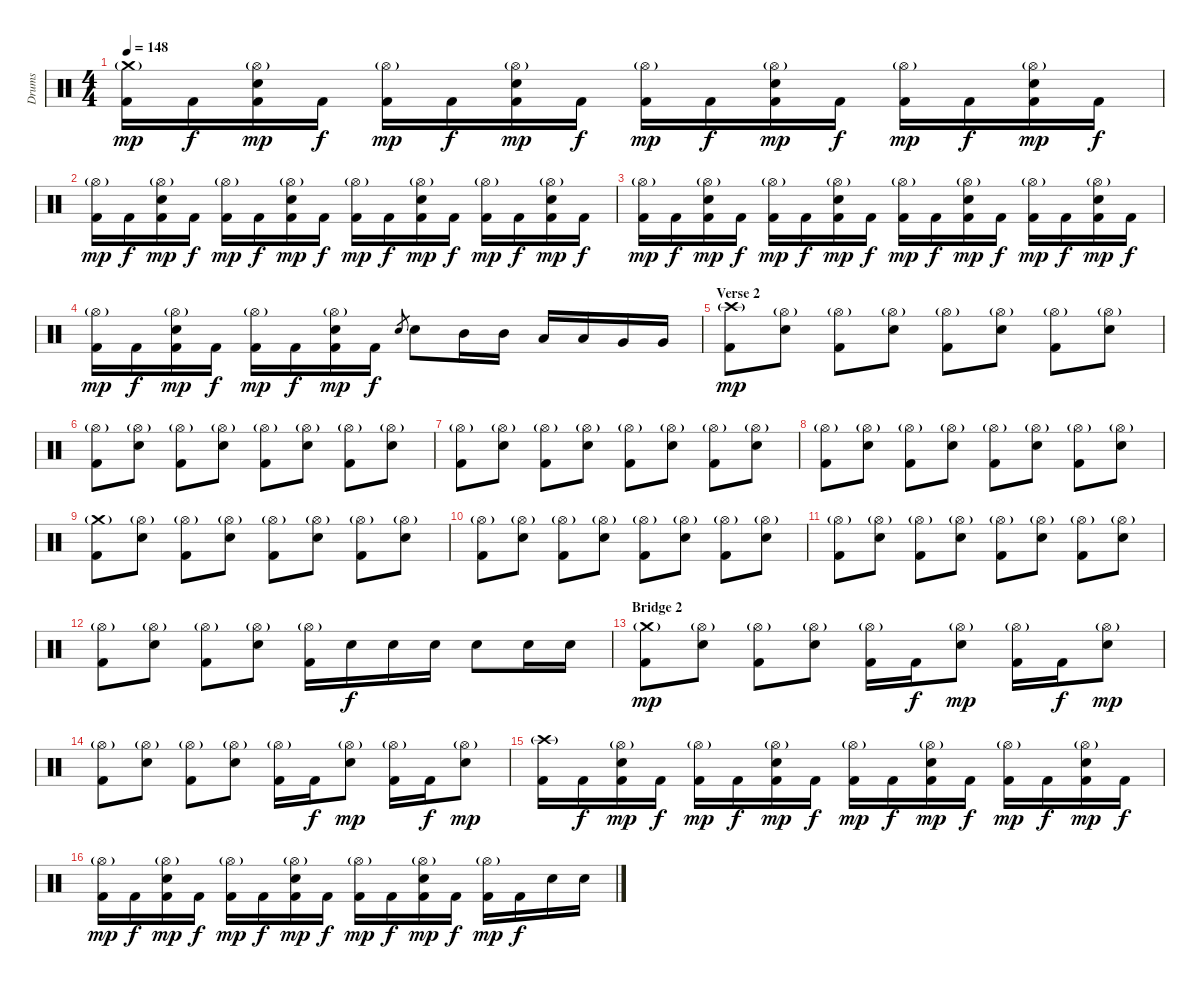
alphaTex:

\track ("Drums" "Drums") {instrument percussion}
\staff {score}
\articulation defaults
\ts (4 4)
\tempo 148
\clef neutral
\ks c
("Crash medium (hit)"{g} "Kick (hit) 2").16{dy mp} "Kick (hit) 2".16{dy f} ("Hi-Hat (open)"{g} "Snare (hit) 2" "Kick (hit) 2").16{dy mp} "Kick (hit) 2".16{dy f} ("Hi-Hat (open)"{g} "Kick (hit) 2").16{dy mp} "Kick (hit) 2".16{dy f} ("Hi-Hat (open)"{g} "Snare (hit) 2" "Kick (hit) 2").16{dy mp} "Kick (hit) 2".16{dy f} ("Hi-Hat (open)"{g} "Kick (hit) 2").16{dy mp} "Kick (hit) 2".16{dy f} ("Hi-Hat (open)"{g} "Snare (hit) 2" "Kick (hit) 2").16{dy mp} "Kick (hit) 2".16{dy f} ("Hi-Hat (open)"{g} "Kick (hit) 2").16{dy mp} "Kick (hit) 2".16{dy f} ("Hi-Hat (open)"{g} "Snare (hit) 2" "Kick (hit) 2").16{dy mp} "Kick (hit) 2".16{dy f} |
("Hi-Hat (open)"{g} "Kick (hit) 2").16{dy mp} "Kick (hit) 2".16{dy f} ("Hi-Hat (open)"{g} "Snare (hit) 2" "Kick (hit) 2").16{dy mp} "Kick (hit) 2".16{dy f} ("Hi-Hat (open)"{g} "Kick (hit) 2").16{dy mp} "Kick (hit) 2".16{dy f} ("Hi-Hat (open)"{g} "Snare (hit) 2" "Kick (hit) 2").16{dy mp} "Kick (hit) 2".16{dy f} ("Hi-Hat (open)"{g} "Kick (hit) 2").16{dy mp} "Kick (hit) 2".16{dy f} ("Hi-Hat (open)"{g} "Snare (hit) 2" "Kick (hit) 2").16{dy mp} "Kick (hit) 2".16{dy f} ("Hi-Hat (open)"{g} "Kick (hit) 2").16{dy mp} "Kick (hit) 2".16{dy f} ("Hi-Hat (open)"{g} "Snare (hit) 2" "Kick (hit) 2").16{dy mp} "Kick (hit) 2".16{dy f} |
("Hi-Hat (open)"{g} "Kick (hit) 2").16{dy mp} "Kick (hit) 2".16{dy f} ("Hi-Hat (open)"{g} "Snare (hit) 2" "Kick (hit) 2").16{dy mp} "Kick (hit) 2".16{dy f} ("Hi-Hat (open)"{g} "Kick (hit) 2").16{dy mp} "Kick (hit) 2".16{dy f} ("Hi-Hat (open)"{g} "Snare (hit) 2" "Kick (hit) 2").16{dy mp} "Kick (hit) 2".16{dy f} ("Hi-Hat (open)"{g} "Kick (hit) 2").16{dy mp} "Kick (hit) 2".16{dy f} ("Hi-Hat (open)"{g} "Snare (hit) 2" "Kick (hit) 2").16{dy mp} "Kick (hit) 2".16{dy f} ("Hi-Hat (open)"{g} "Kick (hit) 2").16{dy mp} "Kick (hit) 2".16{dy f} ("Hi-Hat (open)"{g} "Snare (hit) 2" "Kick (hit) 2").16{dy mp} "Kick (hit) 2".16{dy f} |
("Hi-Hat (open)"{g} "Kick (hit) 2").16{dy mp} "Kick (hit) 2".16{dy f} ("Hi-Hat (open)"{g} "Snare (hit) 2" "Kick (hit) 2").16{dy mp} "Kick (hit) 2".16{dy f} ("Hi-Hat (open)"{g} "Kick (hit) 2").16{dy mp} "Kick (hit) 2".16{dy f} ("Hi-Hat (open)"{g} "Snare (hit) 2" "Kick (hit) 2").16{dy mp} "Kick (hit) 2".16{dy f} "Snare (hit) 2".8{gr} "Snare (hit) 2".8 "Mid Tom (hit)".16 "Mid Tom (hit)".16 "Low Tom (hit)".16 "Low Tom (hit)".16 "Very Low Tom (hit)".16 "Very Low Tom (hit)".16 |
\section ("" "Verse 2")
("Crash high (hit)"{g} "Kick (hit) 2").8{dy mp} ("Hi-Hat (open)"{g} "Snare (hit) 2").8 ("Hi-Hat (open)"{g} "Kick (hit) 2").8 ("Hi-Hat (open)"{g} "Snare (hit) 2").8 ("Hi-Hat (open)"{g} "Kick (hit) 2").8 ("Hi-Hat (open)"{g} "Snare (hit) 2").8 ("Hi-Hat (open)"{g} "Kick (hit) 2").8 ("Hi-Hat (open)"{g} "Snare (hit) 2").8 |
("Hi-Hat (open)"{g} "Kick (hit) 2").8 ("Hi-Hat (open)"{g} "Snare (hit) 2").8 ("Hi-Hat (open)"{g} "Kick (hit) 2").8 ("Hi-Hat (open)"{g} "Snare (hit) 2").8 ("Hi-Hat (open)"{g} "Kick (hit) 2").8 ("Hi-Hat (open)"{g} "Snare (hit) 2").8 ("Hi-Hat (open)"{g} "Kick (hit) 2").8 ("Hi-Hat (open)"{g} "Snare (hit) 2").8 |
("Hi-Hat (open)"{g} "Kick (hit) 2").8 ("Hi-Hat (open)"{g} "Snare (hit) 2").8 ("Hi-Hat (open)"{g} "Kick (hit) 2").8 ("Hi-Hat (open)"{g} "Snare (hit) 2").8 ("Hi-Hat (open)"{g} "Kick (hit) 2").8 ("Hi-Hat (open)"{g} "Snare (hit) 2").8 ("Hi-Hat (open)"{g} "Kick (hit) 2").8 ("Hi-Hat (open)"{g} "Snare (hit) 2").8 |
("Hi-Hat (open)"{g} "Kick (hit) 2").8 ("Hi-Hat (open)"{g} "Snare (hit) 2").8 ("Hi-Hat (open)"{g} "Kick (hit) 2").8 ("Hi-Hat (open)"{g} "Snare (hit) 2").8 ("Hi-Hat (open)"{g} "Kick (hit) 2").8 ("Hi-Hat (open)"{g} "Snare (hit) 2").8 ("Hi-Hat (open)"{g} "Kick (hit) 2").8 ("Hi-Hat (open)"{g} "Snare (hit) 2").8 |
("Crash medium (hit)"{g} "Kick (hit) 2").8 ("Hi-Hat (open)"{g} "Snare (hit) 2").8 ("Hi-Hat (open)"{g} "Kick (hit) 2").8 ("Hi-Hat (open)"{g} "Snare (hit) 2").8 ("Hi-Hat (open)"{g} "Kick (hit) 2").8 ("Hi-Hat (open)"{g} "Snare (hit) 2").8 ("Hi-Hat (open)"{g} "Kick (hit) 2").8 ("Hi-Hat (open)"{g} "Snare (hit) 2").8 |
("Hi-Hat (open)"{g} "Kick (hit) 2").8 ("Hi-Hat (open)"{g} "Snare (hit) 2").8 ("Hi-Hat (open)"{g} "Kick (hit) 2").8 ("Hi-Hat (open)"{g} "Snare (hit) 2").8 ("Hi-Hat (open)"{g} "Kick (hit) 2").8 ("Hi-Hat (open)"{g} "Snare (hit) 2").8 ("Hi-Hat (open)"{g} "Kick (hit) 2").8 ("Hi-Hat (open)"{g} "Snare (hit) 2").8 |
("Hi-Hat (open)"{g} "Kick (hit) 2").8 ("Hi-Hat (open)"{g} "Snare (hit) 2").8 ("Hi-Hat (open)"{g} "Kick (hit) 2").8 ("Hi-Hat (open)"{g} "Snare (hit) 2").8 ("Hi-Hat (open)"{g} "Kick (hit) 2").8 ("Hi-Hat (open)"{g} "Snare (hit) 2").8 ("Hi-Hat (open)"{g} "Kick (hit) 2").8 ("Hi-Hat (open)"{g} "Snare (hit) 2").8 |
("Hi-Hat (open)"{g} "Kick (hit) 2").8 ("Hi-Hat (open)"{g} "Snare (hit) 2").8 ("Hi-Hat (open)"{g} "Kick (hit) 2").8 ("Hi-Hat (open)"{g} "Snare (hit) 2").8 ("Hi-Hat (open)"{g} "Kick (hit) 2").16 "Snare (hit) 2".16{dy f} "Snare (hit) 2".16 "Snare (hit) 2".16 "Snare (hit) 2".8 "Snare (hit) 2".16 "Snare (hit) 2".16 |
\section ("" "Bridge 2")
("Crash medium (hit)"{g} "Kick (hit) 2").8{dy mp} ("Hi-Hat (open)"{g} "Snare (hit) 2").8 ("Hi-Hat (open)"{g} "Kick (hit) 2").8 ("Hi-Hat (open)"{g} "Snare (hit) 2").8 ("Hi-Hat (open)"{g} "Kick (hit) 2").16 "Kick (hit) 2".16{dy f} ("Hi-Hat (open)"{g} "Snare (hit) 2").8{dy mp} ("Hi-Hat (open)"{g} "Kick (hit) 2").16 "Kick (hit) 2".16{dy f} ("Hi-Hat (open)"{g} "Snare (hit) 2").8{dy mp} |
("Hi-Hat (open)"{g} "Kick (hit) 2").8 ("Hi-Hat (open)"{g} "Snare (hit) 2").8 ("Hi-Hat (open)"{g} "Kick (hit) 2").8 ("Hi-Hat (open)"{g} "Snare (hit) 2").8 ("Hi-Hat (open)"{g} "Kick (hit) 2").16 "Kick (hit) 2".16{dy f} ("Hi-Hat (open)"{g} "Snare (hit) 2").8{dy mp} ("Hi-Hat (open)"{g} "Kick (hit) 2").16 "Kick (hit) 2".16{dy f} ("Hi-Hat (open)"{g} "Snare (hit) 2").8{dy mp} |
("Crash high (hit)"{g} "Kick (hit) 2").16 "Kick (hit) 2".16{dy f} ("Hi-Hat (open)"{g} "Snare (hit) 2" "Kick (hit) 2").16{dy mp} "Kick (hit) 2".16{dy f} ("Hi-Hat (open)"{g} "Kick (hit) 2").16{dy mp} "Kick (hit) 2".16{dy f} ("Hi-Hat (open)"{g} "Snare (hit) 2" "Kick (hit) 2").16{dy mp} "Kick (hit) 2".16{dy f} ("Hi-Hat (open)"{g} "Kick (hit) 2").16{dy mp} "Kick (hit) 2".16{dy f} ("Hi-Hat (open)"{g} "Snare (hit) 2" "Kick (hit) 2").16{dy mp} "Kick (hit) 2".16{dy f} ("Hi-Hat (open)"{g} "Kick (hit) 2").16{dy mp} "Kick (hit) 2".16{dy f} ("Hi-Hat (open)"{g} "Snare (hit) 2" "Kick (hit) 2").16{dy mp} "Kick (hit) 2".16{dy f} |
("Hi-Hat (open)"{g} "Kick (hit) 2").16{dy mp} "Kick (hit) 2".16{dy f} ("Hi-Hat (open)"{g} "Snare (hit) 2" "Kick (hit) 2").16{dy mp} "Kick (hit) 2".16{dy f} ("Hi-Hat (open)"{g} "Kick (hit) 2").16{dy mp} "Kick (hit) 2".16{dy f} ("Hi-Hat (open)"{g} "Snare (hit) 2" "Kick (hit) 2").16{dy mp} "Kick (hit) 2".16{dy f} ("Hi-Hat (open)"{g} "Kick (hit) 2").16{dy mp} "Kick (hit) 2".16{dy f} ("Hi-Hat (open)"{g} "Snare (hit) 2" "Kick (hit) 2").16{dy mp} "Kick (hit) 2".16{dy f} ("Hi-Hat (open)"{g} "Kick (hit) 2").16{dy mp} "Kick (hit) 2".16{dy f} "Snare (hit) 2".16 "Snare (hit) 2".16
